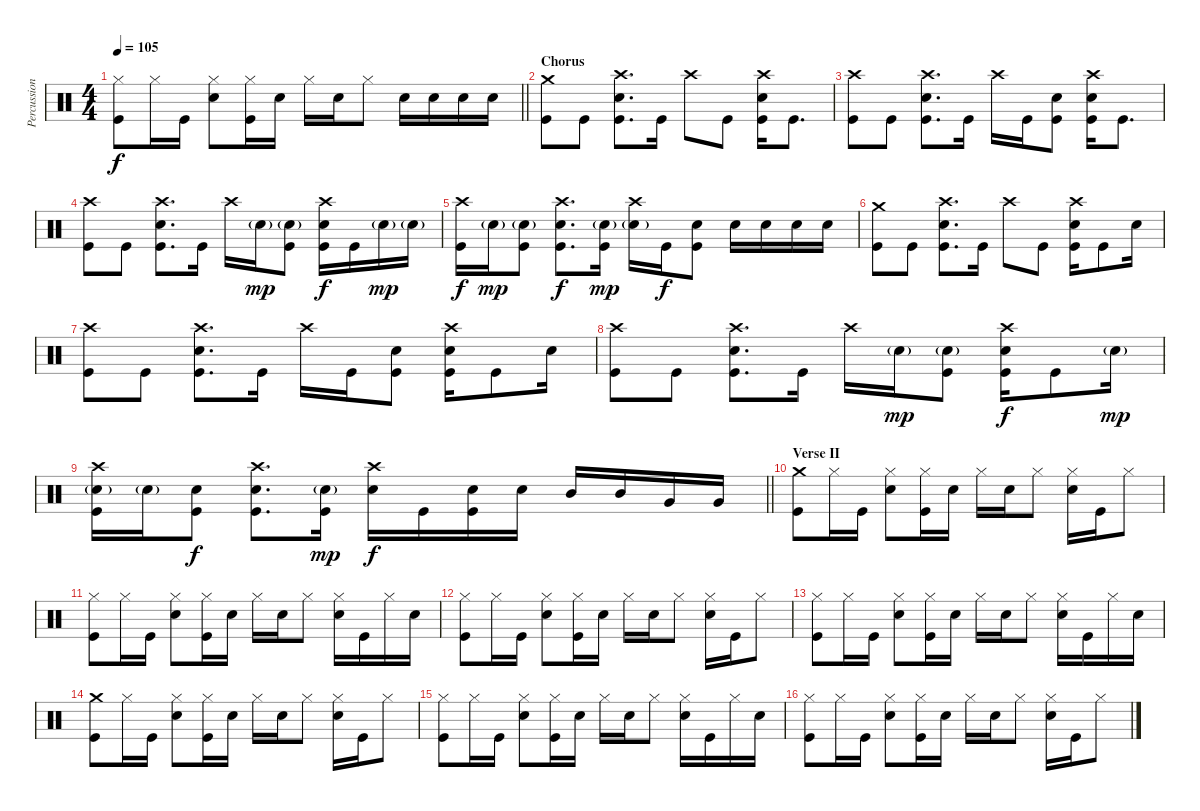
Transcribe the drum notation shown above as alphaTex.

\track ("Percussion" "Percussion") {instrument percussion}
\staff {score}
\articulation defaults
\ts (4 4)
\tempo 105
\clef neutral
\barLineRight lightlight
\ks c
("Hi-Hat (closed)" "Kick (hit)").8{dy f} "Hi-Hat (closed)".16 "Kick (hit)".16 ("Hi-Hat (closed)" "Electric Snare (hit)").8 ("Hi-Hat (closed)" "Kick (hit)").16 "Electric Snare (hit)".16 "Hi-Hat (closed)".16 "Electric Snare (hit)".16 "Hi-Hat (closed)".8 "Electric Snare (hit)".16 "Electric Snare (hit)".16 "Electric Snare (hit)".16 "Electric Snare (hit)".16 |
\section ("" "Chorus")
("Crash medium (hit)" "Kick (hit)").8 "Kick (hit)".8 ("Crash high (hit)" "Electric Snare (hit)" "Kick (hit)").8{d} "Kick (hit)".16 "Crash high (hit)".8 "Kick (hit)".8 ("Crash high (hit)" "Electric Snare (hit)" "Kick (hit)").16 "Kick (hit)".8{d} |
("Crash high (hit)" "Kick (hit)").8 "Kick (hit)".8 ("Crash high (hit)" "Electric Snare (hit)" "Kick (hit)").8{d} "Kick (hit)".16 "Crash high (hit)".16 "Kick (hit)".16 ("Electric Snare (hit)" "Kick (hit)").8 ("Crash high (hit)" "Electric Snare (hit)" "Kick (hit)").16 "Kick (hit)".8{d} |
("Crash high (hit)" "Kick (hit)").8 "Kick (hit)".8 ("Crash high (hit)" "Electric Snare (hit)" "Kick (hit)").8{d} "Kick (hit)".16 "Crash high (hit)".16 "Electric Snare (hit)"{g}.16{dy mp} ("Electric Snare (hit)"{g} "Kick (hit)").8 ("Crash high (hit)" "Electric Snare (hit)" "Kick (hit)").16{dy f} "Kick (hit)".16 "Electric Snare (hit)"{g}.16{dy mp} "Electric Snare (hit)"{g}.16 |
("Crash high (hit)" "Kick (hit)").16{dy f} "Electric Snare (hit)"{g}.16{dy mp} ("Electric Snare (hit)"{g} "Kick (hit)").8 ("Crash high (hit)" "Electric Snare (hit)" "Kick (hit)").8{d dy f} ("Electric Snare (hit)"{g} "Kick (hit)").16{dy mp} ("Crash high (hit)" "Electric Snare (hit)"{g}).16 "Kick (hit)".16{dy f} ("Electric Snare (hit)" "Kick (hit)").8 "Electric Snare (hit)".16 "Electric Snare (hit)".16 "Electric Snare (hit)".16 "Electric Snare (hit)".16 |
("Crash medium (hit)" "Kick (hit)").8 "Kick (hit)".8 ("Crash high (hit)" "Electric Snare (hit)" "Kick (hit)").8{d} "Kick (hit)".16 "Crash high (hit)".8 "Kick (hit)".8 ("Crash high (hit)" "Electric Snare (hit)" "Kick (hit)").16 "Kick (hit)".8 "Electric Snare (hit)".16 |
("Crash high (hit)" "Kick (hit)").8 "Kick (hit)".8 ("Crash high (hit)" "Electric Snare (hit)" "Kick (hit)").8{d} "Kick (hit)".16 "Crash high (hit)".16 "Kick (hit)".16 ("Electric Snare (hit)" "Kick (hit)").8 ("Crash high (hit)" "Electric Snare (hit)" "Kick (hit)").16 "Kick (hit)".8 "Electric Snare (hit)".16 |
("Crash high (hit)" "Kick (hit)").8 "Kick (hit)".8 ("Crash high (hit)" "Electric Snare (hit)" "Kick (hit)").8{d} "Kick (hit)".16 "Crash high (hit)".16 "Electric Snare (hit)"{g}.16{dy mp} ("Electric Snare (hit)"{g} "Kick (hit)").8 ("Crash high (hit)" "Electric Snare (hit)" "Kick (hit)").16{dy f} "Kick (hit)".8 "Electric Snare (hit)"{g}.16{dy mp} |
\barLineRight lightlight
("Crash high (hit)" "Electric Snare (hit)"{g} "Kick (hit)").16 "Electric Snare (hit)"{g}.16 ("Electric Snare (hit)" "Kick (hit)").8{dy f} ("Crash high (hit)" "Electric Snare (hit)" "Kick (hit)").8{d} ("Electric Snare (hit)"{g} "Kick (hit)").16{dy mp} ("Crash high (hit)" "Electric Snare (hit)").16{dy f} "Kick (hit)".16 ("Electric Snare (hit)" "Kick (hit)").16 "Electric Snare (hit)".16 "Mid Tom (hit)".16 "Mid Tom (hit)".16 "Very Low Tom (hit)".16 "Very Low Tom (hit)".16 |
\section ("" "Verse II")
("Crash medium (hit)" "Kick (hit)").8 "Hi-Hat (closed)".16 "Kick (hit)".16 ("Hi-Hat (closed)" "Electric Snare (hit)").8 ("Hi-Hat (closed)" "Kick (hit)").16 "Electric Snare (hit)".16 "Hi-Hat (closed)".16 "Electric Snare (hit)".16 "Hi-Hat (closed)".8 ("Hi-Hat (closed)" "Electric Snare (hit)").16 "Kick (hit)".16 "Hi-Hat (closed)".8 |
("Hi-Hat (closed)" "Kick (hit)").8 "Hi-Hat (closed)".16 "Kick (hit)".16 ("Hi-Hat (closed)" "Electric Snare (hit)").8 ("Hi-Hat (closed)" "Kick (hit)").16 "Electric Snare (hit)".16 "Hi-Hat (closed)".16 "Electric Snare (hit)".16 "Hi-Hat (closed)".8 ("Hi-Hat (closed)" "Electric Snare (hit)").16 "Kick (hit)".16 "Hi-Hat (closed)".16 "Electric Snare (hit)".16 |
("Hi-Hat (closed)" "Kick (hit)").8 "Hi-Hat (closed)".16 "Kick (hit)".16 ("Hi-Hat (closed)" "Electric Snare (hit)").8 ("Hi-Hat (closed)" "Kick (hit)").16 "Electric Snare (hit)".16 "Hi-Hat (closed)".16 "Electric Snare (hit)".16 "Hi-Hat (closed)".8 ("Hi-Hat (closed)" "Electric Snare (hit)").16 "Kick (hit)".16 "Hi-Hat (closed)".8 |
("Hi-Hat (closed)" "Kick (hit)").8 "Hi-Hat (closed)".16 "Kick (hit)".16 ("Hi-Hat (closed)" "Electric Snare (hit)").8 ("Hi-Hat (closed)" "Kick (hit)").16 "Electric Snare (hit)".16 "Hi-Hat (closed)".16 "Electric Snare (hit)".16 "Hi-Hat (closed)".8 ("Hi-Hat (closed)" "Electric Snare (hit)").16 "Kick (hit)".16 "Hi-Hat (closed)".16 "Electric Snare (hit)".16 |
("Crash medium (hit)" "Kick (hit)").8 "Hi-Hat (closed)".16 "Kick (hit)".16 ("Hi-Hat (closed)" "Electric Snare (hit)").8 ("Hi-Hat (closed)" "Kick (hit)").16 "Electric Snare (hit)".16 "Hi-Hat (closed)".16 "Electric Snare (hit)".16 "Hi-Hat (closed)".8 ("Hi-Hat (closed)" "Electric Snare (hit)").16 "Kick (hit)".16 "Hi-Hat (closed)".8 |
("Hi-Hat (closed)" "Kick (hit)").8 "Hi-Hat (closed)".16 "Kick (hit)".16 ("Hi-Hat (closed)" "Electric Snare (hit)").8 ("Hi-Hat (closed)" "Kick (hit)").16 "Electric Snare (hit)".16 "Hi-Hat (closed)".16 "Electric Snare (hit)".16 "Hi-Hat (closed)".8 ("Hi-Hat (closed)" "Electric Snare (hit)").16 "Kick (hit)".16 "Hi-Hat (closed)".16 "Electric Snare (hit)".16 |
("Hi-Hat (closed)" "Kick (hit)").8 "Hi-Hat (closed)".16 "Kick (hit)".16 ("Hi-Hat (closed)" "Electric Snare (hit)").8 ("Hi-Hat (closed)" "Kick (hit)").16 "Electric Snare (hit)".16 "Hi-Hat (closed)".16 "Electric Snare (hit)".16 "Hi-Hat (closed)".8 ("Hi-Hat (closed)" "Electric Snare (hit)").16 "Kick (hit)".16 "Hi-Hat (closed)".8
